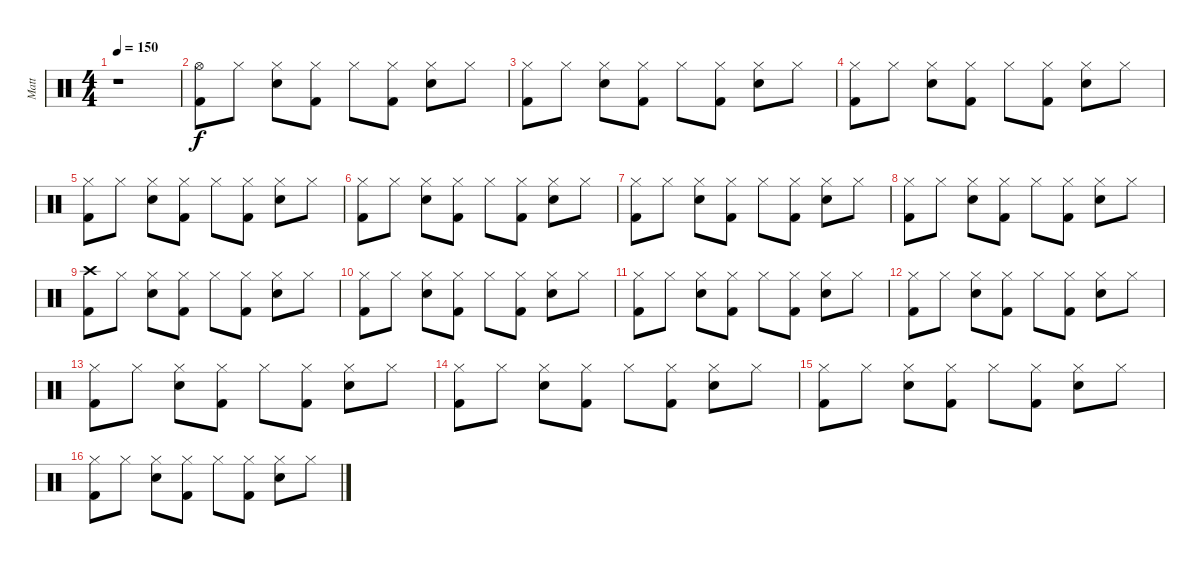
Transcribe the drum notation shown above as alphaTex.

\track ("Matt" "Matt") {instrument percussion}
\staff {score}
\articulation defaults
\ts (4 4)
\tempo 150
\clef neutral
\ks c
r.1{dy f} |
("Hi-Hat (open)" "Kick (hit) 2").8 "Hi-Hat (closed)".8 ("Hi-Hat (closed)" "Snare (hit) 2").8 ("Hi-Hat (closed)" "Kick (hit) 2").8 "Hi-Hat (closed)".8 ("Hi-Hat (closed)" "Kick (hit) 2").8 ("Hi-Hat (closed)" "Snare (hit) 2").8 "Hi-Hat (closed)".8 |
("Hi-Hat (closed)" "Kick (hit) 2").8 "Hi-Hat (closed)".8 ("Hi-Hat (closed)" "Snare (hit) 2").8 ("Hi-Hat (closed)" "Kick (hit) 2").8 "Hi-Hat (closed)".8 ("Hi-Hat (closed)" "Kick (hit) 2").8 ("Hi-Hat (closed)" "Snare (hit) 2").8 "Hi-Hat (closed)".8 |
("Hi-Hat (closed)" "Kick (hit) 2").8 "Hi-Hat (closed)".8 ("Hi-Hat (closed)" "Snare (hit) 2").8 ("Hi-Hat (closed)" "Kick (hit) 2").8 "Hi-Hat (closed)".8 ("Hi-Hat (closed)" "Kick (hit) 2").8 ("Hi-Hat (closed)" "Snare (hit) 2").8 "Hi-Hat (closed)".8 |
("Hi-Hat (closed)" "Kick (hit) 2").8 "Hi-Hat (closed)".8 ("Hi-Hat (closed)" "Snare (hit) 2").8 ("Hi-Hat (closed)" "Kick (hit) 2").8 "Hi-Hat (closed)".8 ("Hi-Hat (closed)" "Kick (hit) 2").8 ("Hi-Hat (closed)" "Snare (hit) 2").8 "Hi-Hat (closed)".8 |
("Hi-Hat (closed)" "Kick (hit) 2").8 "Hi-Hat (closed)".8 ("Hi-Hat (closed)" "Snare (hit) 2").8 ("Hi-Hat (closed)" "Kick (hit) 2").8 "Hi-Hat (closed)".8 ("Hi-Hat (closed)" "Kick (hit) 2").8 ("Hi-Hat (closed)" "Snare (hit) 2").8 "Hi-Hat (closed)".8 |
("Hi-Hat (closed)" "Kick (hit) 2").8 "Hi-Hat (closed)".8 ("Hi-Hat (closed)" "Snare (hit) 2").8 ("Hi-Hat (closed)" "Kick (hit) 2").8 "Hi-Hat (closed)".8 ("Hi-Hat (closed)" "Kick (hit) 2").8 ("Hi-Hat (closed)" "Snare (hit) 2").8 "Hi-Hat (closed)".8 |
("Hi-Hat (closed)" "Kick (hit) 2").8 "Hi-Hat (closed)".8 ("Hi-Hat (closed)" "Snare (hit) 2").8 ("Hi-Hat (closed)" "Kick (hit) 2").8 "Hi-Hat (closed)".8 ("Hi-Hat (closed)" "Kick (hit) 2").8 ("Hi-Hat (closed)" "Snare (hit) 2").8 "Hi-Hat (closed)".8 |
("Crash high (hit)" "Kick (hit) 2").8 "Hi-Hat (closed)".8 ("Hi-Hat (closed)" "Snare (hit) 2").8 ("Hi-Hat (closed)" "Kick (hit) 2").8 "Hi-Hat (closed)".8 ("Hi-Hat (closed)" "Kick (hit) 2").8 ("Hi-Hat (closed)" "Snare (hit) 2").8 "Hi-Hat (closed)".8 |
("Hi-Hat (closed)" "Kick (hit) 2").8 "Hi-Hat (closed)".8 ("Hi-Hat (closed)" "Snare (hit) 2").8 ("Hi-Hat (closed)" "Kick (hit) 2").8 "Hi-Hat (closed)".8 ("Hi-Hat (closed)" "Kick (hit) 2").8 ("Hi-Hat (closed)" "Snare (hit) 2").8 "Hi-Hat (closed)".8 |
("Hi-Hat (closed)" "Kick (hit) 2").8 "Hi-Hat (closed)".8 ("Hi-Hat (closed)" "Snare (hit) 2").8 ("Hi-Hat (closed)" "Kick (hit) 2").8 "Hi-Hat (closed)".8 ("Hi-Hat (closed)" "Kick (hit) 2").8 ("Hi-Hat (closed)" "Snare (hit) 2").8 "Hi-Hat (closed)".8 |
("Hi-Hat (closed)" "Kick (hit) 2").8 "Hi-Hat (closed)".8 ("Hi-Hat (closed)" "Snare (hit) 2").8 ("Hi-Hat (closed)" "Kick (hit) 2").8 "Hi-Hat (closed)".8 ("Hi-Hat (closed)" "Kick (hit) 2").8 ("Hi-Hat (closed)" "Snare (hit) 2").8 "Hi-Hat (closed)".8 |
("Hi-Hat (closed)" "Kick (hit) 2").8 "Hi-Hat (closed)".8 ("Hi-Hat (closed)" "Snare (hit) 2").8 ("Hi-Hat (closed)" "Kick (hit) 2").8 "Hi-Hat (closed)".8 ("Hi-Hat (closed)" "Kick (hit) 2").8 ("Hi-Hat (closed)" "Snare (hit) 2").8 "Hi-Hat (closed)".8 |
("Hi-Hat (closed)" "Kick (hit) 2").8 "Hi-Hat (closed)".8 ("Hi-Hat (closed)" "Snare (hit) 2").8 ("Hi-Hat (closed)" "Kick (hit) 2").8 "Hi-Hat (closed)".8 ("Hi-Hat (closed)" "Kick (hit) 2").8 ("Hi-Hat (closed)" "Snare (hit) 2").8 "Hi-Hat (closed)".8 |
("Hi-Hat (closed)" "Kick (hit) 2").8 "Hi-Hat (closed)".8 ("Hi-Hat (closed)" "Snare (hit) 2").8 ("Hi-Hat (closed)" "Kick (hit) 2").8 "Hi-Hat (closed)".8 ("Hi-Hat (closed)" "Kick (hit) 2").8 ("Hi-Hat (closed)" "Snare (hit) 2").8 "Hi-Hat (closed)".8 |
("Hi-Hat (closed)" "Kick (hit) 2").8 "Hi-Hat (closed)".8 ("Hi-Hat (closed)" "Snare (hit) 2").8 ("Hi-Hat (closed)" "Kick (hit) 2").8 "Hi-Hat (closed)".8 ("Hi-Hat (closed)" "Kick (hit) 2").8 ("Hi-Hat (closed)" "Snare (hit) 2").8 "Hi-Hat (closed)".8
